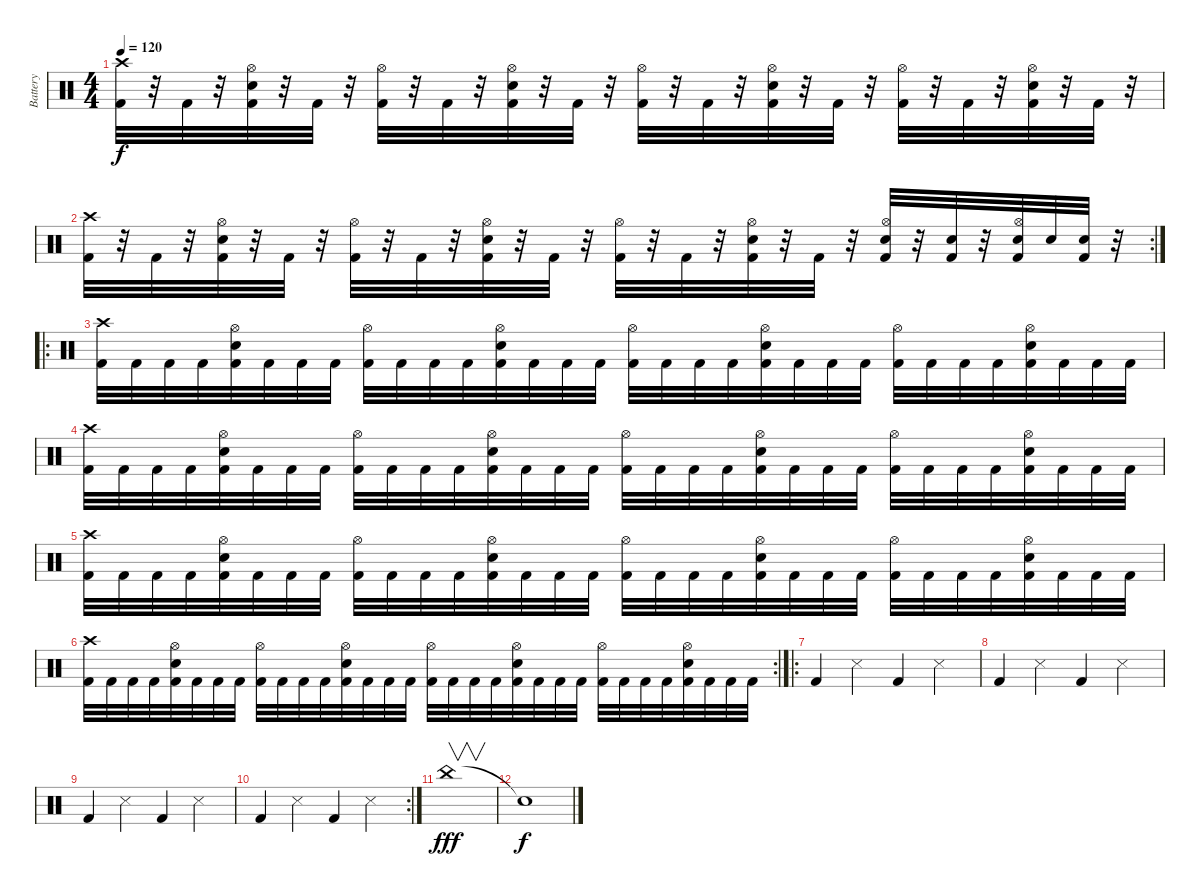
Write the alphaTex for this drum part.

\track ("Battery" "Battery") {instrument percussion}
\staff {score}
\articulation defaults
\ts (4 4)
\tempo 120
\clef neutral
\ks c
("Crash high (hit)" "Kick (hit) 2").32{dy f} r.32 "Kick (hit) 2".32 r.32 ("Hi-Hat (open)" "Electric Snare (hit)" "Kick (hit) 2").32 r.32 "Kick (hit) 2".32 r.32 ("Hi-Hat (open)" "Kick (hit) 2").32 r.32 "Kick (hit) 2".32 r.32 ("Hi-Hat (open)" "Electric Snare (hit)" "Kick (hit) 2").32 r.32 "Kick (hit) 2".32 r.32 ("Hi-Hat (open)" "Kick (hit) 2").32 r.32 "Kick (hit) 2".32 r.32 ("Hi-Hat (open)" "Electric Snare (hit)" "Kick (hit) 2").32 r.32 "Kick (hit) 2".32 r.32 ("Hi-Hat (open)" "Kick (hit) 2").32 r.32 "Kick (hit) 2".32 r.32 ("Hi-Hat (open)" "Electric Snare (hit)" "Kick (hit) 2").32 r.32 "Kick (hit) 2".32 r.32 |
\rc 2
("Crash high (hit)" "Kick (hit) 2").32 r.32 "Kick (hit) 2".32 r.32 ("Hi-Hat (open)" "Electric Snare (hit)" "Kick (hit) 2").32 r.32 "Kick (hit) 2".32 r.32 ("Hi-Hat (open)" "Kick (hit) 2").32 r.32 "Kick (hit) 2".32 r.32 ("Hi-Hat (open)" "Electric Snare (hit)" "Kick (hit) 2").32 r.32 "Kick (hit) 2".32 r.32 ("Hi-Hat (open)" "Kick (hit) 2").32 r.32 "Kick (hit) 2".32 r.32 ("Hi-Hat (open)" "Electric Snare (hit)" "Kick (hit) 2").32 r.32 "Kick (hit) 2".32 r.32 ("Hi-Hat (open)" "Electric Snare (hit)" "Kick (hit) 2").32 r.32 ("Electric Snare (hit)" "Kick (hit) 2").32 r.32 ("Hi-Hat (open)" "Electric Snare (hit)" "Kick (hit) 2").32 "Electric Snare (hit)".32 ("Electric Snare (hit)" "Kick (hit) 2").32 r.32 |
\ro
("Crash high (hit)" "Kick (hit) 2").32 "Kick (hit) 2".32 "Kick (hit) 2".32 "Kick (hit) 2".32 ("Hi-Hat (open)" "Electric Snare (hit)" "Kick (hit) 2").32 "Kick (hit) 2".32 "Kick (hit) 2".32 "Kick (hit) 2".32 ("Hi-Hat (open)" "Kick (hit) 2").32 "Kick (hit) 2".32 "Kick (hit) 2".32 "Kick (hit) 2".32 ("Hi-Hat (open)" "Electric Snare (hit)" "Kick (hit) 2").32 "Kick (hit) 2".32 "Kick (hit) 2".32 "Kick (hit) 2".32 ("Hi-Hat (open)" "Kick (hit) 2").32 "Kick (hit) 2".32 "Kick (hit) 2".32 "Kick (hit) 2".32 ("Hi-Hat (open)" "Electric Snare (hit)" "Kick (hit) 2").32 "Kick (hit) 2".32 "Kick (hit) 2".32 "Kick (hit) 2".32 ("Hi-Hat (open)" "Kick (hit) 2").32 "Kick (hit) 2".32 "Kick (hit) 2".32 "Kick (hit) 2".32 ("Hi-Hat (open)" "Electric Snare (hit)" "Kick (hit) 2").32 "Kick (hit) 2".32 "Kick (hit) 2".32 "Kick (hit) 2".32 |
("Crash high (hit)" "Kick (hit) 2").32 "Kick (hit) 2".32 "Kick (hit) 2".32 "Kick (hit) 2".32 ("Hi-Hat (open)" "Electric Snare (hit)" "Kick (hit) 2").32 "Kick (hit) 2".32 "Kick (hit) 2".32 "Kick (hit) 2".32 ("Hi-Hat (open)" "Kick (hit) 2").32 "Kick (hit) 2".32 "Kick (hit) 2".32 "Kick (hit) 2".32 ("Hi-Hat (open)" "Electric Snare (hit)" "Kick (hit) 2").32 "Kick (hit) 2".32 "Kick (hit) 2".32 "Kick (hit) 2".32 ("Hi-Hat (open)" "Kick (hit) 2").32 "Kick (hit) 2".32 "Kick (hit) 2".32 "Kick (hit) 2".32 ("Hi-Hat (open)" "Electric Snare (hit)" "Kick (hit) 2").32 "Kick (hit) 2".32 "Kick (hit) 2".32 "Kick (hit) 2".32 ("Hi-Hat (open)" "Kick (hit) 2").32 "Kick (hit) 2".32 "Kick (hit) 2".32 "Kick (hit) 2".32 ("Hi-Hat (open)" "Electric Snare (hit)" "Kick (hit) 2").32 "Kick (hit) 2".32 "Kick (hit) 2".32 "Kick (hit) 2".32 |
("Crash high (hit)" "Kick (hit) 2").32 "Kick (hit) 2".32 "Kick (hit) 2".32 "Kick (hit) 2".32 ("Hi-Hat (open)" "Electric Snare (hit)" "Kick (hit) 2").32 "Kick (hit) 2".32 "Kick (hit) 2".32 "Kick (hit) 2".32 ("Hi-Hat (open)" "Kick (hit) 2").32 "Kick (hit) 2".32 "Kick (hit) 2".32 "Kick (hit) 2".32 ("Hi-Hat (open)" "Electric Snare (hit)" "Kick (hit) 2").32 "Kick (hit) 2".32 "Kick (hit) 2".32 "Kick (hit) 2".32 ("Hi-Hat (open)" "Kick (hit) 2").32 "Kick (hit) 2".32 "Kick (hit) 2".32 "Kick (hit) 2".32 ("Hi-Hat (open)" "Electric Snare (hit)" "Kick (hit) 2").32 "Kick (hit) 2".32 "Kick (hit) 2".32 "Kick (hit) 2".32 ("Hi-Hat (open)" "Kick (hit) 2").32 "Kick (hit) 2".32 "Kick (hit) 2".32 "Kick (hit) 2".32 ("Hi-Hat (open)" "Electric Snare (hit)" "Kick (hit) 2").32 "Kick (hit) 2".32 "Kick (hit) 2".32 "Kick (hit) 2".32 |
\rc 2
("Crash high (hit)" "Kick (hit) 2").32 "Kick (hit) 2".32 "Kick (hit) 2".32 "Kick (hit) 2".32 ("Hi-Hat (open)" "Electric Snare (hit)" "Kick (hit) 2").32 "Kick (hit) 2".32 "Kick (hit) 2".32 "Kick (hit) 2".32 ("Hi-Hat (open)" "Kick (hit) 2").32 "Kick (hit) 2".32 "Kick (hit) 2".32 "Kick (hit) 2".32 ("Hi-Hat (open)" "Electric Snare (hit)" "Kick (hit) 2").32 "Kick (hit) 2".32 "Kick (hit) 2".32 "Kick (hit) 2".32 ("Hi-Hat (open)" "Kick (hit) 2").32 "Kick (hit) 2".32 "Kick (hit) 2".32 "Kick (hit) 2".32 ("Hi-Hat (open)" "Electric Snare (hit)" "Kick (hit) 2").32 "Kick (hit) 2".32 "Kick (hit) 2".32 "Kick (hit) 2".32 ("Hi-Hat (open)" "Kick (hit) 2").32 "Kick (hit) 2".32 "Kick (hit) 2".32 "Kick (hit) 2".32 ("Hi-Hat (open)" "Electric Snare (hit)" "Kick (hit) 2").32 "Kick (hit) 2".32 "Kick (hit) 2".32 "Kick (hit) 2".32 |
\ro "Kick (hit) 2".4 "Snare (side stick) 3".4 "Kick (hit) 2".4 "Snare (side stick) 3".4
|
"Kick (hit) 2".4 "Snare (side stick) 3".4 "Kick (hit) 2".4 "Snare (side stick) 3".4 |
"Kick (hit) 2".4 "Snare (side stick) 3".4 "Kick (hit) 2".4 "Snare (side stick) 3".4 |
\rc 2 "Kick (hit) 2".4 "Snare (side stick) 3".4 "Kick (hit) 2".4 "Snare (side stick) 3".4
|
"China (hit)".1{v dy fff} |
"Snare (hit)"{t}.1{dy f}
